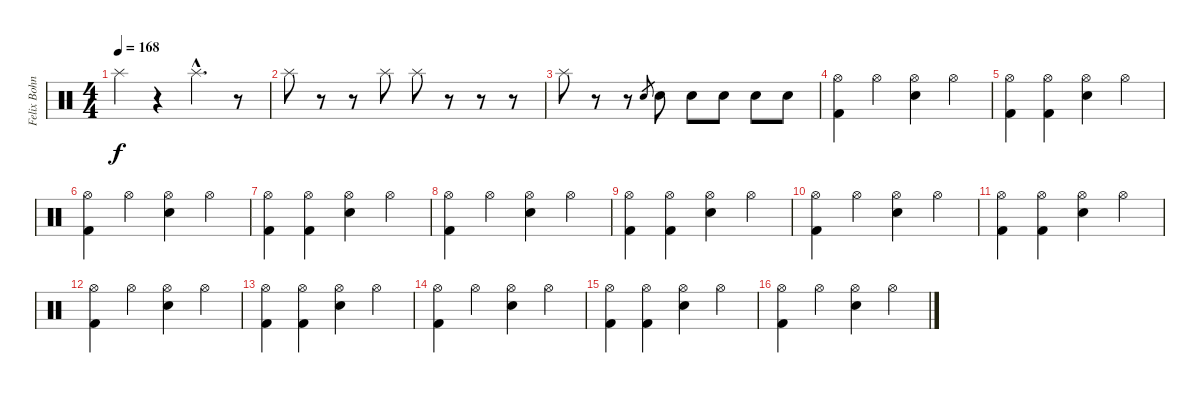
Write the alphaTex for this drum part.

\track ("Felix Bohnke" "Felix Bohn") {instrument percussion}
\staff {score}
\articulation defaults
\ts (4 4)
\tempo 168
\clef neutral
\ks c "Splash (hit)".4{dy f}
r.4 "Splash (hit)"{hac}.4{d} r.8 |
"Splash (hit)".8 r.8 r.8 "Splash (hit)".8 "Splash (hit)".8 r.8 r.8 r.8 |
"Splash (hit)".8 r.8 r.8 "Snare (hit) 2".8{gr} "Snare (hit) 2".8 "Snare (hit) 2".8 "Snare (hit) 2".8 "Snare (hit) 2".8 "Snare (hit) 2".8 |
("Hi-Hat (open)" "Kick (hit) 2").4 "Hi-Hat (open)".4 ("Hi-Hat (open)" "Snare (hit) 2").4 "Hi-Hat (open)".4 |
("Hi-Hat (open)" "Kick (hit) 2").4 ("Hi-Hat (open)" "Kick (hit) 2").4 ("Hi-Hat (open)" "Snare (hit) 2").4 "Hi-Hat (open)".4 |
("Hi-Hat (open)" "Kick (hit) 2").4 "Hi-Hat (open)".4 ("Hi-Hat (open)" "Snare (hit) 2").4 "Hi-Hat (open)".4 |
("Hi-Hat (open)" "Kick (hit) 2").4 ("Hi-Hat (open)" "Kick (hit) 2").4 ("Hi-Hat (open)" "Snare (hit) 2").4 "Hi-Hat (open)".4 |
("Hi-Hat (open)" "Kick (hit) 2").4 "Hi-Hat (open)".4 ("Hi-Hat (open)" "Snare (hit) 2").4 "Hi-Hat (open)".4 |
("Hi-Hat (open)" "Kick (hit) 2").4 ("Hi-Hat (open)" "Kick (hit) 2").4 ("Hi-Hat (open)" "Snare (hit) 2").4 "Hi-Hat (open)".4 |
("Hi-Hat (open)" "Kick (hit) 2").4 "Hi-Hat (open)".4 ("Hi-Hat (open)" "Snare (hit) 2").4 "Hi-Hat (open)".4 |
("Hi-Hat (open)" "Kick (hit) 2").4 ("Hi-Hat (open)" "Kick (hit) 2").4 ("Hi-Hat (open)" "Snare (hit) 2").4 "Hi-Hat (open)".4 |
("Hi-Hat (open)" "Kick (hit) 2").4 "Hi-Hat (open)".4 ("Hi-Hat (open)" "Snare (hit) 2").4 "Hi-Hat (open)".4 |
("Hi-Hat (open)" "Kick (hit) 2").4 ("Hi-Hat (open)" "Kick (hit) 2").4 ("Hi-Hat (open)" "Snare (hit) 2").4 "Hi-Hat (open)".4 |
("Hi-Hat (open)" "Kick (hit) 2").4 "Hi-Hat (open)".4 ("Hi-Hat (open)" "Snare (hit) 2").4 "Hi-Hat (open)".4 |
("Hi-Hat (open)" "Kick (hit) 2").4 ("Hi-Hat (open)" "Kick (hit) 2").4 ("Hi-Hat (open)" "Snare (hit) 2").4 "Hi-Hat (open)".4 |
("Hi-Hat (open)" "Kick (hit) 2").4 "Hi-Hat (open)".4 ("Hi-Hat (open)" "Snare (hit) 2").4 "Hi-Hat (open)".4
